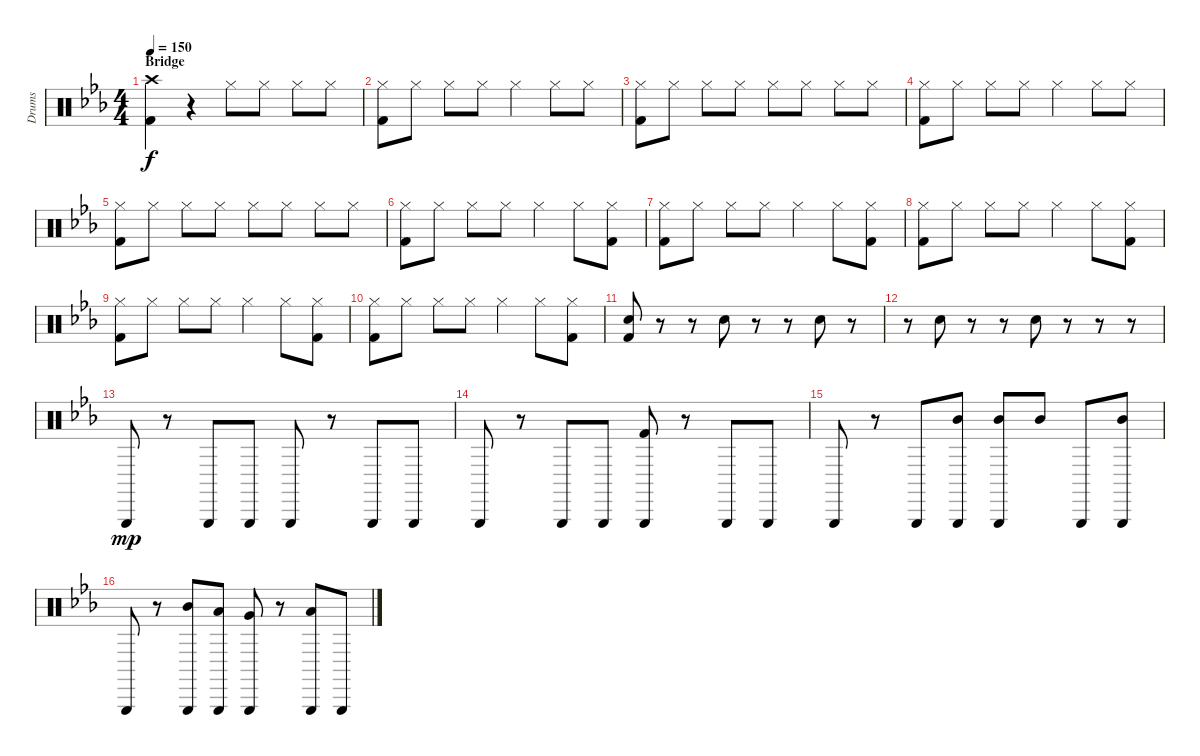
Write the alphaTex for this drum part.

\track ("Drums" "Drums") {instrument percussion}
\staff {score}
\articulation defaults
\ts (4 4)
\section ("" "Bridge")
\tempo 150
\clef neutral
\ks eb
("Crash high (hit)" "Kick (hit) 2").4{dy f} r.4 "Hi-Hat (closed)".8 "Hi-Hat (closed)".8 "Hi-Hat (closed)".8 "Hi-Hat (closed)".8 |
("Hi-Hat (closed)" "Kick (hit) 2").8 "Hi-Hat (closed)".8 "Hi-Hat (closed)".8 "Hi-Hat (closed)".8 "Hi-Hat (closed)".4 "Hi-Hat (closed)".8 "Hi-Hat (closed)".8 |
("Hi-Hat (closed)" "Kick (hit) 2").8 "Hi-Hat (closed)".8 "Hi-Hat (closed)".8 "Hi-Hat (closed)".8 "Hi-Hat (closed)".8 "Hi-Hat (closed)".8 "Hi-Hat (closed)".8 "Hi-Hat (closed)".8 |
("Hi-Hat (closed)" "Kick (hit) 2").8 "Hi-Hat (closed)".8 "Hi-Hat (closed)".8 "Hi-Hat (closed)".8 "Hi-Hat (closed)".4 "Hi-Hat (closed)".8 "Hi-Hat (closed)".8 |
("Hi-Hat (closed)" "Kick (hit) 2").8 "Hi-Hat (closed)".8 "Hi-Hat (closed)".8 "Hi-Hat (closed)".8 "Hi-Hat (closed)".8 "Hi-Hat (closed)".8 "Hi-Hat (closed)".8 "Hi-Hat (closed)".8 |
("Hi-Hat (closed)" "Kick (hit) 2").8 "Hi-Hat (closed)".8 "Hi-Hat (closed)".8 "Hi-Hat (closed)".8 "Hi-Hat (closed)".4 "Hi-Hat (closed)".8 ("Hi-Hat (closed)" "Kick (hit) 2").8 |
("Hi-Hat (closed)" "Kick (hit) 2").8 "Hi-Hat (closed)".8 "Hi-Hat (closed)".8 "Hi-Hat (closed)".8 "Hi-Hat (closed)".4 "Hi-Hat (closed)".8 ("Hi-Hat (closed)" "Kick (hit) 2").8 |
("Hi-Hat (closed)" "Kick (hit) 2").8 "Hi-Hat (closed)".8 "Hi-Hat (closed)".8 "Hi-Hat (closed)".8 "Hi-Hat (closed)".4 "Hi-Hat (closed)".8 ("Hi-Hat (closed)" "Kick (hit) 2").8 |
("Hi-Hat (closed)" "Kick (hit) 2").8 "Hi-Hat (closed)".8 "Hi-Hat (closed)".8 "Hi-Hat (closed)".8 "Hi-Hat (closed)".4 "Hi-Hat (closed)".8 ("Hi-Hat (closed)" "Kick (hit) 2").8 |
("Hi-Hat (closed)" "Kick (hit) 2").8 "Hi-Hat (closed)".8 "Hi-Hat (closed)".8 "Hi-Hat (closed)".8 "Hi-Hat (closed)".4 "Hi-Hat (closed)".8 ("Hi-Hat (closed)" "Kick (hit) 2").8 |
("Electric Snare (hit)" "Kick (hit) 2").8 r.8 r.8 "Electric Snare (hit)".8 r.8 r.8 "Electric Snare (hit)".8 r.8 |
r.8 "Electric Snare (hit)".8 r.8 r.8 "Electric Snare (hit)".8 r.8 r.8 r.8 |
"Triangle (hit)".8{dy mp} r.8 "Triangle (hit)".8 "Triangle (hit)".8 "Triangle (hit)".8 r.8 "Triangle (hit)".8 "Triangle (hit)".8 |
"Triangle (hit)".8 r.8 "Triangle (hit)".8 "Triangle (hit)".8 ("Triangle (hit)" "Kick (hit) 2").8 r.8 "Triangle (hit)".8 "Triangle (hit)".8 |
"Triangle (hit)".8 r.8 "Triangle (hit)".8 ("Triangle (hit)" "Mid Tom (hit)").8 ("Triangle (hit)" "Mid Tom (hit)").8 "Mid Tom (hit)".8 "Triangle (hit)".8 ("Triangle (hit)" "Mid Tom (hit)").8 |
"Triangle (hit)".8 r.8 ("Triangle (hit)" "Mid Tom (hit)").8 ("Triangle (hit)" "Low Tom (hit)").8 ("Triangle (hit)" "Very Low Tom (hit)").8 r.8 ("Triangle (hit)" "Low Floor Tom (hit)").8 "Triangle (hit)".8
